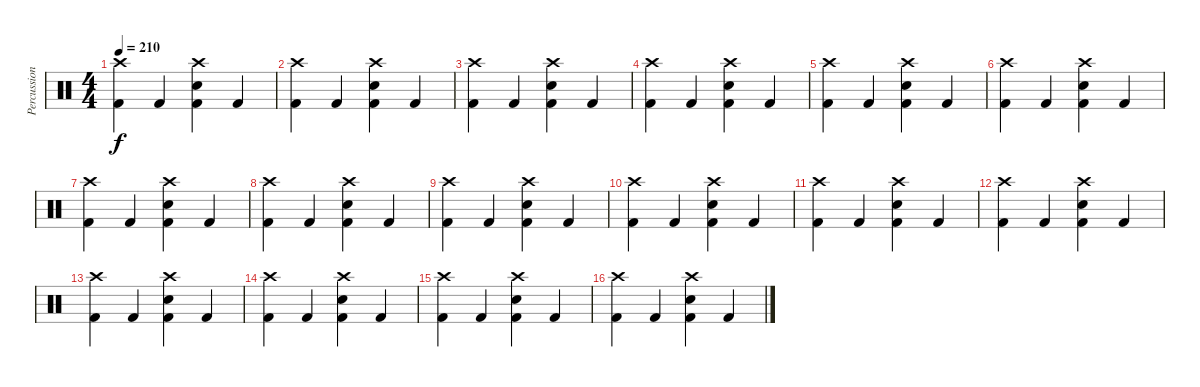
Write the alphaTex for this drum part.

\track ("Percussion" "Percussion") {instrument percussion}
\staff {score}
\articulation defaults
\ts (4 4)
\tempo 210
\clef neutral
\ks c
("Crash high (hit)" "Kick (hit) 2").4{dy f} "Kick (hit) 2".4 ("Crash high (hit)" "Snare (hit) 2" "Kick (hit) 2").4 "Kick (hit) 2".4 |
("Crash high (hit)" "Kick (hit) 2").4 "Kick (hit) 2".4 ("Crash high (hit)" "Snare (hit) 2" "Kick (hit) 2").4 "Kick (hit) 2".4 |
("Crash high (hit)" "Kick (hit) 2").4 "Kick (hit) 2".4 ("Crash high (hit)" "Snare (hit) 2" "Kick (hit) 2").4 "Kick (hit) 2".4 |
("Crash high (hit)" "Kick (hit) 2").4 "Kick (hit) 2".4 ("Crash high (hit)" "Snare (hit) 2" "Kick (hit) 2").4 "Kick (hit) 2".4 |
("Crash high (hit)" "Kick (hit) 2").4 "Kick (hit) 2".4 ("Crash high (hit)" "Snare (hit) 2" "Kick (hit) 2").4 "Kick (hit) 2".4 |
("Crash high (hit)" "Kick (hit) 2").4 "Kick (hit) 2".4 ("Crash high (hit)" "Snare (hit) 2" "Kick (hit) 2").4 "Kick (hit) 2".4 |
("Crash high (hit)" "Kick (hit) 2").4 "Kick (hit) 2".4 ("Crash high (hit)" "Snare (hit) 2" "Kick (hit) 2").4 "Kick (hit) 2".4 |
("Crash high (hit)" "Kick (hit) 2").4 "Kick (hit) 2".4 ("Crash high (hit)" "Snare (hit) 2" "Kick (hit) 2").4 "Kick (hit) 2".4 |
("Crash high (hit)" "Kick (hit) 2").4 "Kick (hit) 2".4 ("Crash high (hit)" "Snare (hit) 2" "Kick (hit) 2").4 "Kick (hit) 2".4 |
("Crash high (hit)" "Kick (hit) 2").4 "Kick (hit) 2".4 ("Crash high (hit)" "Snare (hit) 2" "Kick (hit) 2").4 "Kick (hit) 2".4 |
("Crash high (hit)" "Kick (hit) 2").4 "Kick (hit) 2".4 ("Crash high (hit)" "Snare (hit) 2" "Kick (hit) 2").4 "Kick (hit) 2".4 |
("Crash high (hit)" "Kick (hit) 2").4 "Kick (hit) 2".4 ("Crash high (hit)" "Snare (hit) 2" "Kick (hit) 2").4 "Kick (hit) 2".4 |
("Crash high (hit)" "Kick (hit) 2").4 "Kick (hit) 2".4 ("Crash high (hit)" "Snare (hit) 2" "Kick (hit) 2").4 "Kick (hit) 2".4 |
("Crash high (hit)" "Kick (hit) 2").4 "Kick (hit) 2".4 ("Crash high (hit)" "Snare (hit) 2" "Kick (hit) 2").4 "Kick (hit) 2".4 |
("Crash high (hit)" "Kick (hit) 2").4 "Kick (hit) 2".4 ("Crash high (hit)" "Snare (hit) 2" "Kick (hit) 2").4 "Kick (hit) 2".4 |
("Crash high (hit)" "Kick (hit) 2").4 "Kick (hit) 2".4 ("Crash high (hit)" "Snare (hit) 2" "Kick (hit) 2").4 "Kick (hit) 2".4
